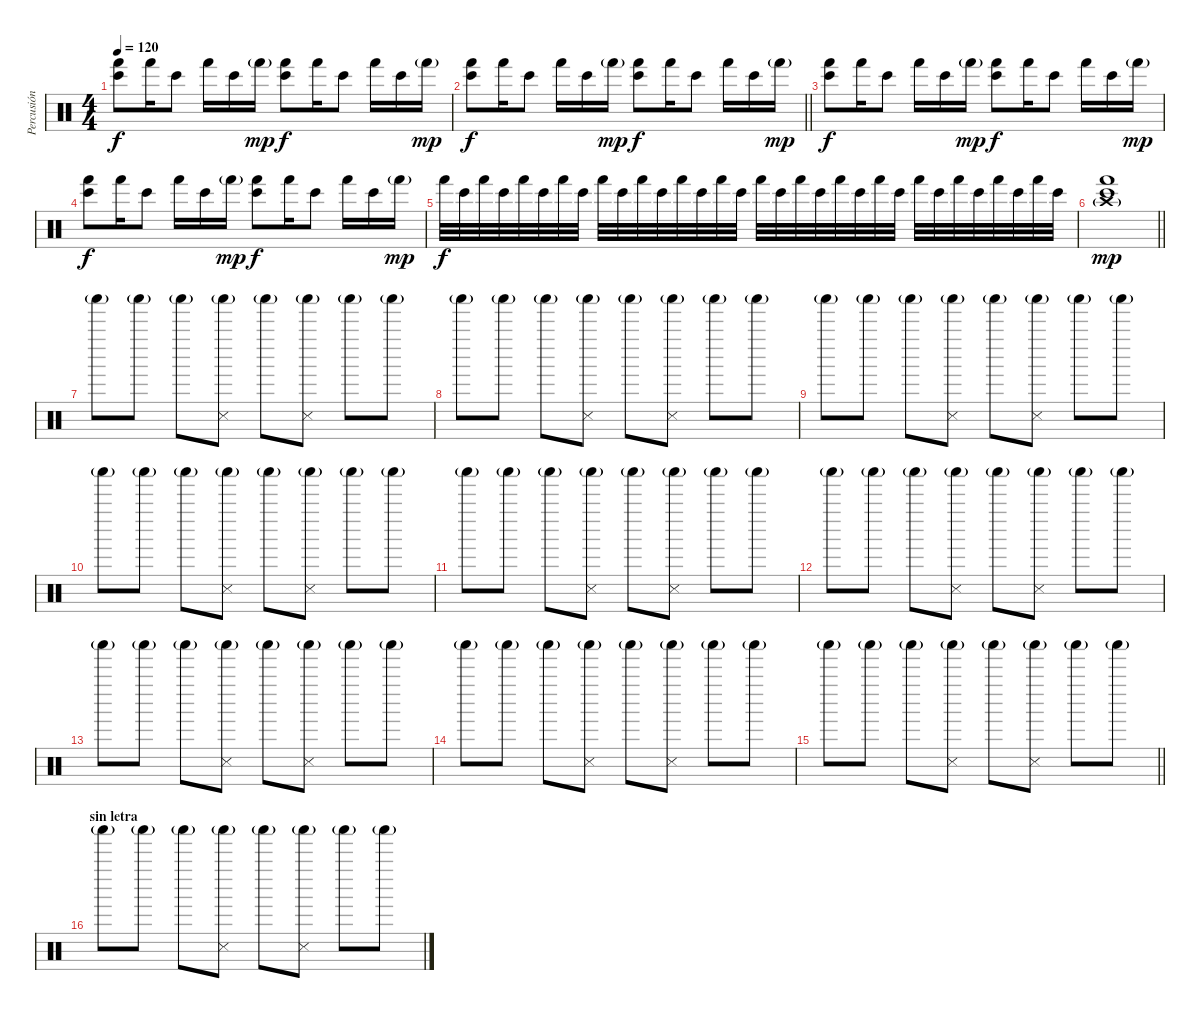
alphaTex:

\track ("Percusión" "Percusión") {instrument percussion}
\staff {score}
\articulation defaults
\ts (4 4)
\tempo 120
\clef neutral
\ks c
("Hand (hit)" "Bongo High (hit)").8{dy f} "Hand (hit)".16 "Bongo High (hit)".8 "Hand (hit)".16 "Bongo High (hit)".16 "Hand (hit)"{g}.16{dy mp} ("Hand (hit)" "Bongo High (hit)").8{dy f} "Hand (hit)".16 "Bongo High (hit)".8 "Hand (hit)".16 "Bongo High (hit)".16 "Hand (hit)"{g}.16{dy mp} |
\barLineRight lightlight
("Hand (hit)" "Bongo High (hit)").8{dy f} "Hand (hit)".16 "Bongo High (hit)".8 "Hand (hit)".16 "Bongo High (hit)".16 "Hand (hit)"{g}.16{dy mp} ("Hand (hit)" "Bongo High (hit)").8{dy f} "Hand (hit)".16 "Bongo High (hit)".8 "Hand (hit)".16 "Bongo High (hit)".16 "Hand (hit)"{g}.16{dy mp} |
("Hand (hit)" "Bongo High (hit)").8{dy f} "Hand (hit)".16 "Bongo High (hit)".8 "Hand (hit)".16 "Bongo High (hit)".16 "Hand (hit)"{g}.16{dy mp} ("Hand (hit)" "Bongo High (hit)").8{dy f} "Hand (hit)".16 "Bongo High (hit)".8 "Hand (hit)".16 "Bongo High (hit)".16 "Hand (hit)"{g}.16{dy mp} |
("Hand (hit)" "Bongo High (hit)").8{dy f} "Hand (hit)".16 "Bongo High (hit)".8 "Hand (hit)".16 "Bongo High (hit)".16 "Hand (hit)"{g}.16{dy mp} ("Hand (hit)" "Bongo High (hit)").8{dy f} "Hand (hit)".16 "Bongo High (hit)".8 "Hand (hit)".16 "Bongo High (hit)".16 "Hand (hit)"{g}.16{dy mp} |
"Hand (hit)".32{dy f} "Bongo High (hit)".32 "Hand (hit)".32 "Bongo High (hit)".32 "Hand (hit)".32 "Bongo High (hit)".32 "Hand (hit)".32 "Bongo High (hit)".32 "Hand (hit)".32 "Bongo High (hit)".32 "Hand (hit)".32 "Bongo High (hit)".32 "Hand (hit)".32 "Bongo High (hit)".32 "Hand (hit)".32 "Bongo High (hit)".32 "Hand (hit)".32 "Bongo High (hit)".32 "Hand (hit)".32 "Bongo High (hit)".32 "Hand (hit)".32 "Bongo High (hit)".32 "Hand (hit)".32 "Bongo High (hit)".32 "Hand (hit)".32 "Bongo High (hit)".32 "Hand (hit)".32 "Bongo High (hit)".32 "Hand (hit)".32 "Bongo High (hit)".32 "Hand (hit)".32 "Bongo High (hit)".32 |
\barLineRight lightlight
("Hand (hit)" "Bongo High (hit)" "Crash high (hit)"{g}).1{dy mp} |
\section ("" "")
"Shaker (hit)"{g}.8 "Shaker (hit)"{g}.8 "Shaker (hit)"{g}.8 ("Snare (side stick) 3" "Shaker (hit)"{g}).8 "Shaker (hit)"{g}.8 ("Snare (side stick) 3" "Shaker (hit)"{g}).8 "Shaker (hit)"{g}.8 "Shaker (hit)"{g}.8 |
"Shaker (hit)"{g}.8 "Shaker (hit)"{g}.8 "Shaker (hit)"{g}.8 ("Snare (side stick) 3" "Shaker (hit)"{g}).8 "Shaker (hit)"{g}.8 ("Snare (side stick) 3" "Shaker (hit)"{g}).8 "Shaker (hit)"{g}.8 "Shaker (hit)"{g}.8 |
"Shaker (hit)"{g}.8 "Shaker (hit)"{g}.8 "Shaker (hit)"{g}.8 ("Snare (side stick) 3" "Shaker (hit)"{g}).8 "Shaker (hit)"{g}.8 ("Snare (side stick) 3" "Shaker (hit)"{g}).8 "Shaker (hit)"{g}.8 "Shaker (hit)"{g}.8 |
"Shaker (hit)"{g}.8 "Shaker (hit)"{g}.8 "Shaker (hit)"{g}.8 ("Snare (side stick) 3" "Shaker (hit)"{g}).8 "Shaker (hit)"{g}.8 ("Snare (side stick) 3" "Shaker (hit)"{g}).8 "Shaker (hit)"{g}.8 "Shaker (hit)"{g}.8 |
"Shaker (hit)"{g}.8 "Shaker (hit)"{g}.8 "Shaker (hit)"{g}.8 ("Snare (side stick) 3" "Shaker (hit)"{g}).8 "Shaker (hit)"{g}.8 ("Snare (side stick) 3" "Shaker (hit)"{g}).8 "Shaker (hit)"{g}.8 "Shaker (hit)"{g}.8 |
"Shaker (hit)"{g}.8 "Shaker (hit)"{g}.8 "Shaker (hit)"{g}.8 ("Snare (side stick) 3" "Shaker (hit)"{g}).8 "Shaker (hit)"{g}.8 ("Snare (side stick) 3" "Shaker (hit)"{g}).8 "Shaker (hit)"{g}.8 "Shaker (hit)"{g}.8 |
"Shaker (hit)"{g}.8 "Shaker (hit)"{g}.8 "Shaker (hit)"{g}.8 ("Snare (side stick) 3" "Shaker (hit)"{g}).8 "Shaker (hit)"{g}.8 ("Snare (side stick) 3" "Shaker (hit)"{g}).8 "Shaker (hit)"{g}.8 "Shaker (hit)"{g}.8 |
"Shaker (hit)"{g}.8 "Shaker (hit)"{g}.8 "Shaker (hit)"{g}.8 ("Snare (side stick) 3" "Shaker (hit)"{g}).8 "Shaker (hit)"{g}.8 ("Snare (side stick) 3" "Shaker (hit)"{g}).8 "Shaker (hit)"{g}.8 "Shaker (hit)"{g}.8 |
\barLineRight lightlight "Shaker (hit)"{g}.8 "Shaker (hit)"{g}.8 "Shaker (hit)"{g}.8
("Snare (side stick) 3" "Shaker (hit)"{g}).8 "Shaker (hit)"{g}.8 ("Snare (side stick) 3" "Shaker (hit)"{g}).8 "Shaker (hit)"{g}.8 "Shaker (hit)"{g}.8 |
\section ("" "sin letra")
"Shaker (hit)"{g}.8 "Shaker (hit)"{g}.8 "Shaker (hit)"{g}.8 ("Snare (side stick) 3" "Shaker (hit)"{g}).8 "Shaker (hit)"{g}.8 ("Snare (side stick) 3" "Shaker (hit)"{g}).8 "Shaker (hit)"{g}.8 "Shaker (hit)"{g}.8
